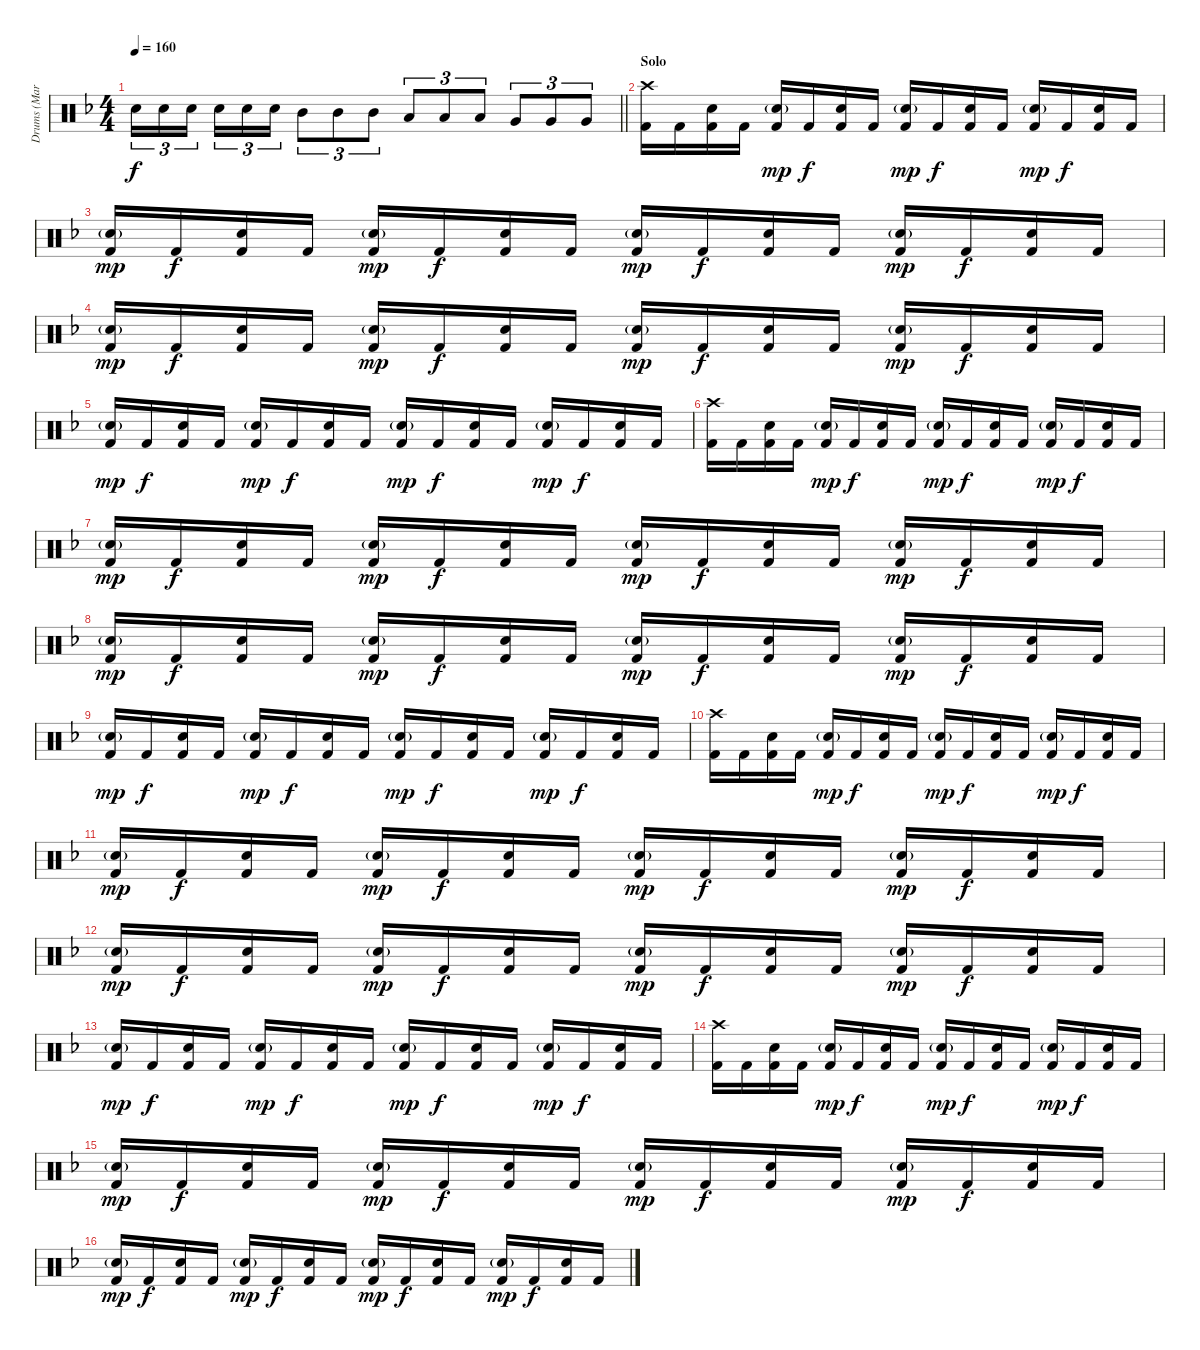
\track ("Drums (Mark)" "Drums (Mar") {instrument percussion}
\staff {score}
\articulation defaults
\ts (4 4)
\tempo 160
\clef neutral
\barLineRight lightlight
\ks dminor "Snare (hit) 2".16{tu (3 2) dy f} "Snare (hit) 2".16{tu (3 2)} "Snare (hit) 2".16{tu (3 2) beam splitsecondary} "Snare (hit) 2".16{tu (3 2)} "Snare (hit) 2".16{tu (3 2)} "Snare (hit) 2".16{tu (3 2)} "Mid Tom (hit)".8{tu (3 2)} "Mid Tom (hit)".8{tu (3 2)} "Mid Tom (hit)".8{tu (3 2)} "Low Tom (hit)".8{tu (3 2)} "Low Tom (hit)".8{tu (3 2)} "Low Tom (hit)".8{tu (3 2)} "Very Low Tom (hit)".8{tu (3 2)} "Very Low Tom (hit)".8{tu (3 2)} "Very Low Tom (hit)".8{tu (3 2)}
|
\section ("" "Solo")
("Crash high (hit)" "Kick (hit) 2").16 "Kick (hit) 2".16 ("Electric Snare (hit)" "Kick (hit) 2").16 "Kick (hit) 2".16 ("Electric Snare (hit)"{g} "Kick (hit) 2").16{dy mp} "Kick (hit) 2".16{dy f} ("Electric Snare (hit)" "Kick (hit) 2").16 "Kick (hit) 2".16 ("Electric Snare (hit)"{g} "Kick (hit) 2").16{dy mp} "Kick (hit) 2".16{dy f} ("Electric Snare (hit)" "Kick (hit) 2").16 "Kick (hit) 2".16 ("Electric Snare (hit)"{g} "Kick (hit) 2").16{dy mp} "Kick (hit) 2".16{dy f} ("Electric Snare (hit)" "Kick (hit) 2").16 "Kick (hit) 2".16 |
("Electric Snare (hit)"{g} "Kick (hit) 2").16{dy mp} "Kick (hit) 2".16{dy f} ("Electric Snare (hit)" "Kick (hit) 2").16 "Kick (hit) 2".16 ("Electric Snare (hit)"{g} "Kick (hit) 2").16{dy mp} "Kick (hit) 2".16{dy f} ("Electric Snare (hit)" "Kick (hit) 2").16 "Kick (hit) 2".16 ("Electric Snare (hit)"{g} "Kick (hit) 2").16{dy mp} "Kick (hit) 2".16{dy f} ("Electric Snare (hit)" "Kick (hit) 2").16 "Kick (hit) 2".16 ("Electric Snare (hit)"{g} "Kick (hit) 2").16{dy mp} "Kick (hit) 2".16{dy f} ("Electric Snare (hit)" "Kick (hit) 2").16 "Kick (hit) 2".16 |
("Electric Snare (hit)"{g} "Kick (hit) 2").16{dy mp} "Kick (hit) 2".16{dy f} ("Electric Snare (hit)" "Kick (hit) 2").16 "Kick (hit) 2".16 ("Electric Snare (hit)"{g} "Kick (hit) 2").16{dy mp} "Kick (hit) 2".16{dy f} ("Electric Snare (hit)" "Kick (hit) 2").16 "Kick (hit) 2".16 ("Electric Snare (hit)"{g} "Kick (hit) 2").16{dy mp} "Kick (hit) 2".16{dy f} ("Electric Snare (hit)" "Kick (hit) 2").16 "Kick (hit) 2".16 ("Electric Snare (hit)"{g} "Kick (hit) 2").16{dy mp} "Kick (hit) 2".16{dy f} ("Electric Snare (hit)" "Kick (hit) 2").16 "Kick (hit) 2".16 |
("Electric Snare (hit)"{g} "Kick (hit) 2").16{dy mp} "Kick (hit) 2".16{dy f} ("Electric Snare (hit)" "Kick (hit) 2").16 "Kick (hit) 2".16 ("Electric Snare (hit)"{g} "Kick (hit) 2").16{dy mp} "Kick (hit) 2".16{dy f} ("Electric Snare (hit)" "Kick (hit) 2").16 "Kick (hit) 2".16 ("Electric Snare (hit)"{g} "Kick (hit) 2").16{dy mp} "Kick (hit) 2".16{dy f} ("Electric Snare (hit)" "Kick (hit) 2").16 "Kick (hit) 2".16 ("Electric Snare (hit)"{g} "Kick (hit) 2").16{dy mp} "Kick (hit) 2".16{dy f} ("Electric Snare (hit)" "Kick (hit) 2").16 "Kick (hit) 2".16 |
("Crash high (hit)" "Kick (hit) 2").16 "Kick (hit) 2".16 ("Electric Snare (hit)" "Kick (hit) 2").16 "Kick (hit) 2".16 ("Electric Snare (hit)"{g} "Kick (hit) 2").16{dy mp} "Kick (hit) 2".16{dy f} ("Electric Snare (hit)" "Kick (hit) 2").16 "Kick (hit) 2".16 ("Electric Snare (hit)"{g} "Kick (hit) 2").16{dy mp} "Kick (hit) 2".16{dy f} ("Electric Snare (hit)" "Kick (hit) 2").16 "Kick (hit) 2".16 ("Electric Snare (hit)"{g} "Kick (hit) 2").16{dy mp} "Kick (hit) 2".16{dy f} ("Electric Snare (hit)" "Kick (hit) 2").16 "Kick (hit) 2".16 |
("Electric Snare (hit)"{g} "Kick (hit) 2").16{dy mp} "Kick (hit) 2".16{dy f} ("Electric Snare (hit)" "Kick (hit) 2").16 "Kick (hit) 2".16 ("Electric Snare (hit)"{g} "Kick (hit) 2").16{dy mp} "Kick (hit) 2".16{dy f} ("Electric Snare (hit)" "Kick (hit) 2").16 "Kick (hit) 2".16 ("Electric Snare (hit)"{g} "Kick (hit) 2").16{dy mp} "Kick (hit) 2".16{dy f} ("Electric Snare (hit)" "Kick (hit) 2").16 "Kick (hit) 2".16 ("Electric Snare (hit)"{g} "Kick (hit) 2").16{dy mp} "Kick (hit) 2".16{dy f} ("Electric Snare (hit)" "Kick (hit) 2").16 "Kick (hit) 2".16 |
("Electric Snare (hit)"{g} "Kick (hit) 2").16{dy mp} "Kick (hit) 2".16{dy f} ("Electric Snare (hit)" "Kick (hit) 2").16 "Kick (hit) 2".16 ("Electric Snare (hit)"{g} "Kick (hit) 2").16{dy mp} "Kick (hit) 2".16{dy f} ("Electric Snare (hit)" "Kick (hit) 2").16 "Kick (hit) 2".16 ("Electric Snare (hit)"{g} "Kick (hit) 2").16{dy mp} "Kick (hit) 2".16{dy f} ("Electric Snare (hit)" "Kick (hit) 2").16 "Kick (hit) 2".16 ("Electric Snare (hit)"{g} "Kick (hit) 2").16{dy mp} "Kick (hit) 2".16{dy f} ("Electric Snare (hit)" "Kick (hit) 2").16 "Kick (hit) 2".16 |
("Electric Snare (hit)"{g} "Kick (hit) 2").16{dy mp} "Kick (hit) 2".16{dy f} ("Electric Snare (hit)" "Kick (hit) 2").16 "Kick (hit) 2".16 ("Electric Snare (hit)"{g} "Kick (hit) 2").16{dy mp} "Kick (hit) 2".16{dy f} ("Electric Snare (hit)" "Kick (hit) 2").16 "Kick (hit) 2".16 ("Electric Snare (hit)"{g} "Kick (hit) 2").16{dy mp} "Kick (hit) 2".16{dy f} ("Electric Snare (hit)" "Kick (hit) 2").16 "Kick (hit) 2".16 ("Electric Snare (hit)"{g} "Kick (hit) 2").16{dy mp} "Kick (hit) 2".16{dy f} ("Electric Snare (hit)" "Kick (hit) 2").16 "Kick (hit) 2".16 |
("Crash high (hit)" "Kick (hit) 2").16 "Kick (hit) 2".16 ("Electric Snare (hit)" "Kick (hit) 2").16 "Kick (hit) 2".16 ("Electric Snare (hit)"{g} "Kick (hit) 2").16{dy mp} "Kick (hit) 2".16{dy f} ("Electric Snare (hit)" "Kick (hit) 2").16 "Kick (hit) 2".16 ("Electric Snare (hit)"{g} "Kick (hit) 2").16{dy mp} "Kick (hit) 2".16{dy f} ("Electric Snare (hit)" "Kick (hit) 2").16 "Kick (hit) 2".16 ("Electric Snare (hit)"{g} "Kick (hit) 2").16{dy mp} "Kick (hit) 2".16{dy f} ("Electric Snare (hit)" "Kick (hit) 2").16 "Kick (hit) 2".16 |
("Electric Snare (hit)"{g} "Kick (hit) 2").16{dy mp} "Kick (hit) 2".16{dy f} ("Electric Snare (hit)" "Kick (hit) 2").16 "Kick (hit) 2".16 ("Electric Snare (hit)"{g} "Kick (hit) 2").16{dy mp} "Kick (hit) 2".16{dy f} ("Electric Snare (hit)" "Kick (hit) 2").16 "Kick (hit) 2".16 ("Electric Snare (hit)"{g} "Kick (hit) 2").16{dy mp} "Kick (hit) 2".16{dy f} ("Electric Snare (hit)" "Kick (hit) 2").16 "Kick (hit) 2".16 ("Electric Snare (hit)"{g} "Kick (hit) 2").16{dy mp} "Kick (hit) 2".16{dy f} ("Electric Snare (hit)" "Kick (hit) 2").16 "Kick (hit) 2".16 |
("Electric Snare (hit)"{g} "Kick (hit) 2").16{dy mp} "Kick (hit) 2".16{dy f} ("Electric Snare (hit)" "Kick (hit) 2").16 "Kick (hit) 2".16 ("Electric Snare (hit)"{g} "Kick (hit) 2").16{dy mp} "Kick (hit) 2".16{dy f} ("Electric Snare (hit)" "Kick (hit) 2").16 "Kick (hit) 2".16 ("Electric Snare (hit)"{g} "Kick (hit) 2").16{dy mp} "Kick (hit) 2".16{dy f} ("Electric Snare (hit)" "Kick (hit) 2").16 "Kick (hit) 2".16 ("Electric Snare (hit)"{g} "Kick (hit) 2").16{dy mp} "Kick (hit) 2".16{dy f} ("Electric Snare (hit)" "Kick (hit) 2").16 "Kick (hit) 2".16 |
("Electric Snare (hit)"{g} "Kick (hit) 2").16{dy mp} "Kick (hit) 2".16{dy f} ("Electric Snare (hit)" "Kick (hit) 2").16 "Kick (hit) 2".16 ("Electric Snare (hit)"{g} "Kick (hit) 2").16{dy mp} "Kick (hit) 2".16{dy f} ("Electric Snare (hit)" "Kick (hit) 2").16 "Kick (hit) 2".16 ("Electric Snare (hit)"{g} "Kick (hit) 2").16{dy mp} "Kick (hit) 2".16{dy f} ("Electric Snare (hit)" "Kick (hit) 2").16 "Kick (hit) 2".16 ("Electric Snare (hit)"{g} "Kick (hit) 2").16{dy mp} "Kick (hit) 2".16{dy f} ("Electric Snare (hit)" "Kick (hit) 2").16 "Kick (hit) 2".16 |
("Crash high (hit)" "Kick (hit) 2").16 "Kick (hit) 2".16 ("Electric Snare (hit)" "Kick (hit) 2").16 "Kick (hit) 2".16 ("Electric Snare (hit)"{g} "Kick (hit) 2").16{dy mp} "Kick (hit) 2".16{dy f} ("Electric Snare (hit)" "Kick (hit) 2").16 "Kick (hit) 2".16 ("Electric Snare (hit)"{g} "Kick (hit) 2").16{dy mp} "Kick (hit) 2".16{dy f} ("Electric Snare (hit)" "Kick (hit) 2").16 "Kick (hit) 2".16 ("Electric Snare (hit)"{g} "Kick (hit) 2").16{dy mp} "Kick (hit) 2".16{dy f} ("Electric Snare (hit)" "Kick (hit) 2").16 "Kick (hit) 2".16 |
("Electric Snare (hit)"{g} "Kick (hit) 2").16{dy mp} "Kick (hit) 2".16{dy f} ("Electric Snare (hit)" "Kick (hit) 2").16 "Kick (hit) 2".16 ("Electric Snare (hit)"{g} "Kick (hit) 2").16{dy mp} "Kick (hit) 2".16{dy f} ("Electric Snare (hit)" "Kick (hit) 2").16 "Kick (hit) 2".16 ("Electric Snare (hit)"{g} "Kick (hit) 2").16{dy mp} "Kick (hit) 2".16{dy f} ("Electric Snare (hit)" "Kick (hit) 2").16 "Kick (hit) 2".16 ("Electric Snare (hit)"{g} "Kick (hit) 2").16{dy mp} "Kick (hit) 2".16{dy f} ("Electric Snare (hit)" "Kick (hit) 2").16 "Kick (hit) 2".16 |
("Electric Snare (hit)"{g} "Kick (hit) 2").16{dy mp} "Kick (hit) 2".16{dy f} ("Electric Snare (hit)" "Kick (hit) 2").16 "Kick (hit) 2".16 ("Electric Snare (hit)"{g} "Kick (hit) 2").16{dy mp} "Kick (hit) 2".16{dy f} ("Electric Snare (hit)" "Kick (hit) 2").16 "Kick (hit) 2".16 ("Electric Snare (hit)"{g} "Kick (hit) 2").16{dy mp} "Kick (hit) 2".16{dy f} ("Electric Snare (hit)" "Kick (hit) 2").16 "Kick (hit) 2".16 ("Electric Snare (hit)"{g} "Kick (hit) 2").16{dy mp} "Kick (hit) 2".16{dy f} ("Electric Snare (hit)" "Kick (hit) 2").16 "Kick (hit) 2".16
